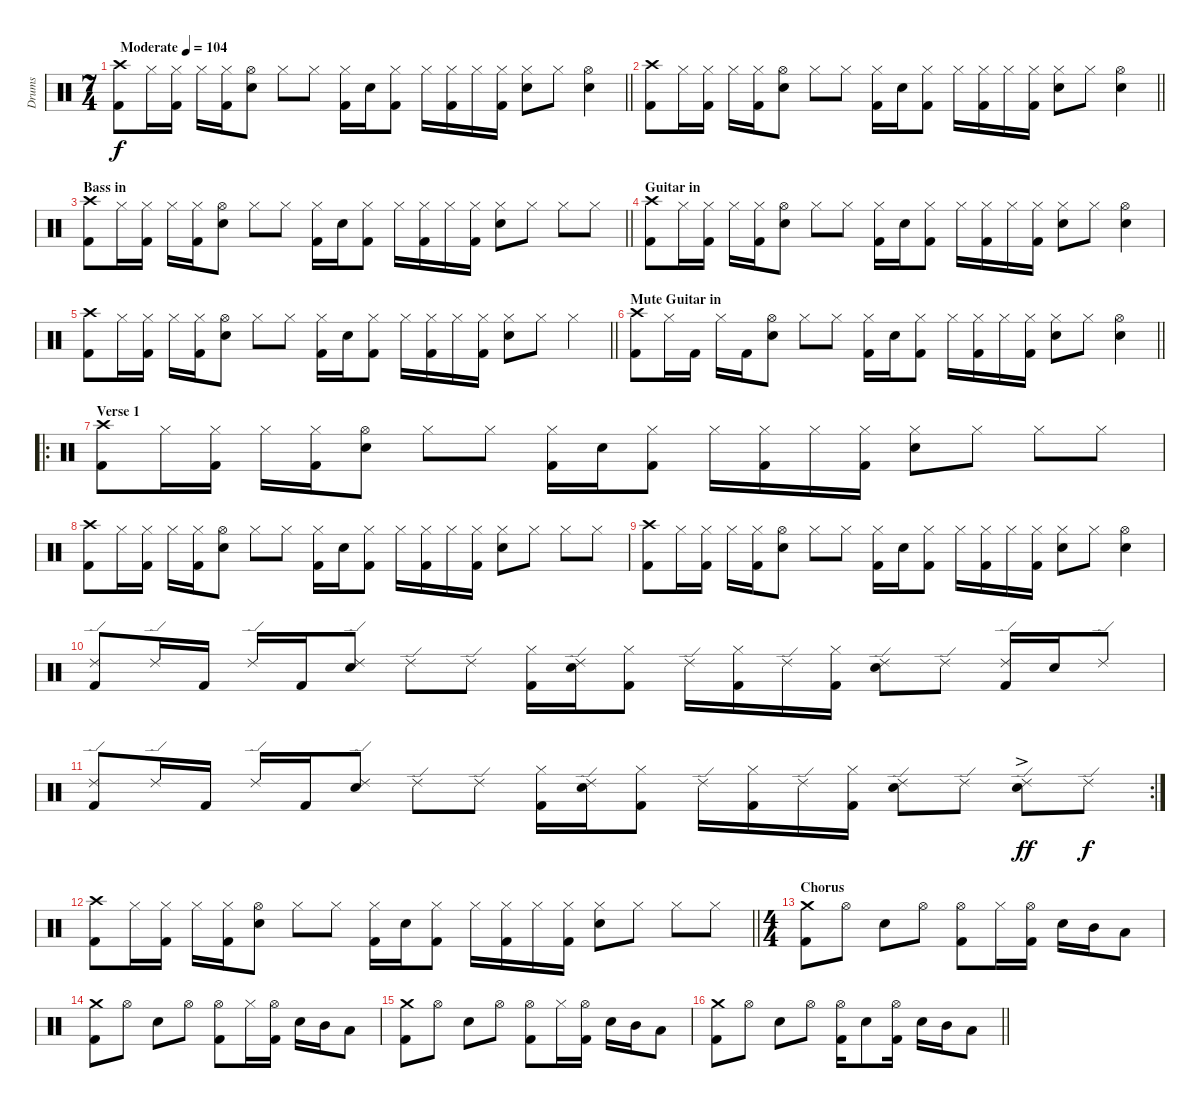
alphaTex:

\track ("Drums" "Drums") {instrument percussion}
\staff {score}
\articulation defaults
\ts (7 4)
\tempo (104 "Moderate")
\clef neutral
\barLineRight lightlight
\ks c
("Crash high (hit)" "Kick (hit) 2").8{dy f} "Hi-Hat (closed)".16 ("Hi-Hat (closed)" "Kick (hit) 2").16 "Hi-Hat (closed)".16 ("Hi-Hat (closed)" "Kick (hit) 2").16 ("Hi-Hat (open)" "Electric Snare (hit)").8 "Hi-Hat (closed)".8 "Hi-Hat (closed)".8 ("Hi-Hat (closed)" "Kick (hit) 2").16 "Electric Snare (hit)".16 ("Hi-Hat (closed)" "Kick (hit) 2").8 "Hi-Hat (closed)".16 ("Hi-Hat (closed)" "Kick (hit) 2").16 "Hi-Hat (closed)".16 ("Hi-Hat (closed)" "Kick (hit) 2").16 ("Hi-Hat (closed)" "Electric Snare (hit)").8 "Hi-Hat (closed)".8 ("Hi-Hat (open)" "Electric Snare (hit)").4 |
\section ("" "")
\barLineRight lightlight
("Crash high (hit)" "Kick (hit) 2").8 "Hi-Hat (closed)".16 ("Hi-Hat (closed)" "Kick (hit) 2").16 "Hi-Hat (closed)".16 ("Hi-Hat (closed)" "Kick (hit) 2").16 ("Hi-Hat (open)" "Electric Snare (hit)").8 "Hi-Hat (closed)".8 "Hi-Hat (closed)".8 ("Hi-Hat (closed)" "Kick (hit) 2").16 "Electric Snare (hit)".16 ("Hi-Hat (closed)" "Kick (hit) 2").8 "Hi-Hat (closed)".16 ("Hi-Hat (closed)" "Kick (hit) 2").16 "Hi-Hat (closed)".16 ("Hi-Hat (closed)" "Kick (hit) 2").16 ("Hi-Hat (closed)" "Electric Snare (hit)").8 "Hi-Hat (closed)".8 ("Hi-Hat (open)" "Electric Snare (hit)").4 |
\section ("" "Bass in")
\barLineRight lightlight
("Crash high (hit)" "Kick (hit) 2").8 "Hi-Hat (closed)".16 ("Hi-Hat (closed)" "Kick (hit) 2").16 "Hi-Hat (closed)".16 ("Hi-Hat (closed)" "Kick (hit) 2").16 ("Hi-Hat (open)" "Electric Snare (hit)").8 "Hi-Hat (closed)".8 "Hi-Hat (closed)".8 ("Hi-Hat (closed)" "Kick (hit) 2").16 "Electric Snare (hit)".16 ("Hi-Hat (closed)" "Kick (hit) 2").8 "Hi-Hat (closed)".16 ("Hi-Hat (closed)" "Kick (hit) 2").16 "Hi-Hat (closed)".16 ("Hi-Hat (closed)" "Kick (hit) 2").16 ("Hi-Hat (closed)" "Electric Snare (hit)").8 "Hi-Hat (closed)".8 "Hi-Hat (closed)".8 "Hi-Hat (closed)".8 |
\section ("" "Guitar in")
("Crash high (hit)" "Kick (hit) 2").8 "Hi-Hat (closed)".16 ("Hi-Hat (closed)" "Kick (hit) 2").16 "Hi-Hat (closed)".16 ("Hi-Hat (closed)" "Kick (hit) 2").16 ("Hi-Hat (open)" "Electric Snare (hit)").8 "Hi-Hat (closed)".8 "Hi-Hat (closed)".8 ("Hi-Hat (closed)" "Kick (hit) 2").16 "Electric Snare (hit)".16 ("Hi-Hat (closed)" "Kick (hit) 2").8 "Hi-Hat (closed)".16 ("Hi-Hat (closed)" "Kick (hit) 2").16 "Hi-Hat (closed)".16 ("Hi-Hat (closed)" "Kick (hit) 2").16 ("Hi-Hat (closed)" "Electric Snare (hit)").8 "Hi-Hat (closed)".8 ("Hi-Hat (open)" "Electric Snare (hit)").4 |
\barLineRight lightlight
("Crash high (hit)" "Kick (hit) 2").8 "Hi-Hat (closed)".16 ("Hi-Hat (closed)" "Kick (hit) 2").16 "Hi-Hat (closed)".16 ("Hi-Hat (closed)" "Kick (hit) 2").16 ("Hi-Hat (open)" "Electric Snare (hit)").8 "Hi-Hat (closed)".8 "Hi-Hat (closed)".8 ("Hi-Hat (closed)" "Kick (hit) 2").16 "Electric Snare (hit)".16 ("Hi-Hat (closed)" "Kick (hit) 2").8 "Hi-Hat (closed)".16 ("Hi-Hat (closed)" "Kick (hit) 2").16 "Hi-Hat (closed)".16 ("Hi-Hat (closed)" "Kick (hit) 2").16 ("Hi-Hat (closed)" "Electric Snare (hit)").8 "Hi-Hat (closed)".8 "Hi-Hat (closed)".4 |
\section ("" "Mute Guitar in")
\barLineRight lightlight
("Crash high (hit)" "Kick (hit) 2").8 "Hi-Hat (closed)".16 "Kick (hit) 2".16 "Hi-Hat (closed)".16 "Kick (hit) 2".16 ("Hi-Hat (open)" "Electric Snare (hit)").8 "Hi-Hat (closed)".8 "Hi-Hat (closed)".8 ("Hi-Hat (closed)" "Kick (hit) 2").16 "Electric Snare (hit)".16 ("Hi-Hat (closed)" "Kick (hit) 2").8 "Hi-Hat (closed)".16 ("Hi-Hat (closed)" "Kick (hit) 2").16 "Hi-Hat (closed)".16 ("Hi-Hat (closed)" "Kick (hit) 2").16 ("Hi-Hat (closed)" "Electric Snare (hit)").8 "Hi-Hat (closed)".8 ("Hi-Hat (open)" "Electric Snare (hit)").4 |
\ro
\section ("" "Verse 1")
("Crash high (hit)" "Kick (hit) 2").8 "Hi-Hat (closed)".16 ("Hi-Hat (closed)" "Kick (hit) 2").16 "Hi-Hat (closed)".16 ("Hi-Hat (closed)" "Kick (hit) 2").16 ("Hi-Hat (open)" "Electric Snare (hit)").8 "Hi-Hat (closed)".8 "Hi-Hat (closed)".8 ("Hi-Hat (closed)" "Kick (hit) 2").16 "Electric Snare (hit)".16 ("Hi-Hat (closed)" "Kick (hit) 2").8 "Hi-Hat (closed)".16 ("Hi-Hat (closed)" "Kick (hit) 2").16 "Hi-Hat (closed)".16 ("Hi-Hat (closed)" "Kick (hit) 2").16 ("Hi-Hat (closed)" "Electric Snare (hit)").8 "Hi-Hat (closed)".8 "Hi-Hat (closed)".8 "Hi-Hat (closed)".8 |
("Crash high (hit)" "Kick (hit) 2").8 "Hi-Hat (closed)".16 ("Hi-Hat (closed)" "Kick (hit) 2").16 "Hi-Hat (closed)".16 ("Hi-Hat (closed)" "Kick (hit) 2").16 ("Hi-Hat (open)" "Electric Snare (hit)").8 "Hi-Hat (closed)".8 "Hi-Hat (closed)".8 ("Hi-Hat (closed)" "Kick (hit) 2").16 "Electric Snare (hit)".16 ("Hi-Hat (closed)" "Kick (hit) 2").8 "Hi-Hat (closed)".16 ("Hi-Hat (closed)" "Kick (hit) 2").16 "Hi-Hat (closed)".16 ("Hi-Hat (closed)" "Kick (hit) 2").16 ("Hi-Hat (closed)" "Electric Snare (hit)").8 "Hi-Hat (closed)".8 "Hi-Hat (closed)".8 "Hi-Hat (closed)".8 |
("Crash high (hit)" "Kick (hit) 2").8 "Hi-Hat (closed)".16 ("Hi-Hat (closed)" "Kick (hit) 2").16 "Hi-Hat (closed)".16 ("Hi-Hat (closed)" "Kick (hit) 2").16 ("Hi-Hat (open)" "Electric Snare (hit)").8 "Hi-Hat (closed)".8 "Hi-Hat (closed)".8 ("Hi-Hat (closed)" "Kick (hit) 2").16 "Electric Snare (hit)".16 ("Hi-Hat (closed)" "Kick (hit) 2").8 "Hi-Hat (closed)".16 ("Hi-Hat (closed)" "Kick (hit) 2").16 "Hi-Hat (closed)".16 ("Hi-Hat (closed)" "Kick (hit) 2").16 ("Hi-Hat (closed)" "Electric Snare (hit)").8 "Hi-Hat (closed)".8 ("Hi-Hat (open)" "Electric Snare (hit)").4 |
("Ride (edge) 2" "Kick (hit) 2").8 "Ride (edge) 2".16 "Kick (hit) 2".16 "Ride (edge) 2".16 "Kick (hit) 2".16 ("Ride (edge) 2" "Electric Snare (hit)").8 "Ride (edge) 2".8 "Ride (edge) 2".8 ("Hi-Hat (closed)" "Kick (hit) 2").16 ("Ride (edge) 2" "Electric Snare (hit)").16 ("Hi-Hat (closed)" "Kick (hit) 2").8 "Ride (edge) 2".16 ("Hi-Hat (closed)" "Kick (hit) 2").16 "Ride (edge) 2".16 ("Hi-Hat (closed)" "Kick (hit) 2").16 ("Ride (edge) 2" "Electric Snare (hit)").8 "Ride (edge) 2".8 ("Ride (edge) 2" "Kick (hit) 2").16 "Electric Snare (hit)".16 "Ride (edge) 2".8 |
\rc 2
("Ride (edge) 2" "Kick (hit) 2").8 "Ride (edge) 2".16 "Kick (hit) 2".16 "Ride (edge) 2".16 "Kick (hit) 2".16 ("Ride (edge) 2" "Electric Snare (hit)").8 "Ride (edge) 2".8 "Ride (edge) 2".8 ("Hi-Hat (closed)" "Kick (hit) 2").16 ("Ride (edge) 2" "Electric Snare (hit)").16 ("Hi-Hat (closed)" "Kick (hit) 2").8 "Ride (edge) 2".16 ("Hi-Hat (closed)" "Kick (hit) 2").16 "Ride (edge) 2".16 ("Hi-Hat (closed)" "Kick (hit) 2").16 ("Ride (edge) 2" "Electric Snare (hit)").8 "Ride (edge) 2".8 ("Ride (edge) 2" "Electric Snare (hit)"{ac}).8{dy ff} "Ride (edge) 2".8{dy f} |
\barLineRight lightlight
("Crash high (hit)" "Kick (hit) 2").8 "Hi-Hat (closed)".16 ("Hi-Hat (closed)" "Kick (hit) 2").16 "Hi-Hat (closed)".16 ("Hi-Hat (closed)" "Kick (hit) 2").16 ("Hi-Hat (open)" "Electric Snare (hit)").8 "Hi-Hat (closed)".8 "Hi-Hat (closed)".8 ("Hi-Hat (closed)" "Kick (hit) 2").16 "Electric Snare (hit)".16 ("Hi-Hat (closed)" "Kick (hit) 2").8 "Hi-Hat (closed)".16 ("Hi-Hat (closed)" "Kick (hit) 2").16 "Hi-Hat (closed)".16 ("Hi-Hat (closed)" "Kick (hit) 2").16 ("Hi-Hat (closed)" "Electric Snare (hit)").8 "Hi-Hat (closed)".8 "Hi-Hat (closed)".8 "Hi-Hat (closed)".8 |
\ts (4 4)
\section ("" "Chorus")
("Crash medium (hit)" "Kick (hit) 2").8 "Hi-Hat (open)".8 "Electric Snare (hit)".8 "Hi-Hat (open)".8 ("Hi-Hat (open)" "Kick (hit) 2").8 "Hi-Hat (closed)".16 ("Hi-Hat (open)" "Kick (hit) 2").16 "Electric Snare (hit)".16 "Mid Tom (hit)".16 "Low Tom (hit)".8 |
("Crash medium (hit)" "Kick (hit) 2").8 "Hi-Hat (open)".8 "Electric Snare (hit)".8 "Hi-Hat (open)".8 ("Hi-Hat (open)" "Kick (hit) 2").8 "Hi-Hat (closed)".16 ("Hi-Hat (open)" "Kick (hit) 2").16 "Electric Snare (hit)".16 "Mid Tom (hit)".16 "Low Tom (hit)".8 |
("Crash medium (hit)" "Kick (hit) 2").8 "Hi-Hat (open)".8 "Electric Snare (hit)".8 "Hi-Hat (open)".8 ("Hi-Hat (open)" "Kick (hit) 2").8 "Hi-Hat (closed)".16 ("Hi-Hat (open)" "Kick (hit) 2").16 "Electric Snare (hit)".16 "Mid Tom (hit)".16 "Low Tom (hit)".8 |
\barLineRight lightlight
("Crash medium (hit)" "Kick (hit) 2").8 "Hi-Hat (open)".8 "Electric Snare (hit)".8 "Hi-Hat (open)".8 ("Hi-Hat (open)" "Kick (hit) 2").16 "Electric Snare (hit)".8 ("Hi-Hat (open)" "Kick (hit) 2").16 "Electric Snare (hit)".16 "Mid Tom (hit)".16 "Low Tom (hit)".8
